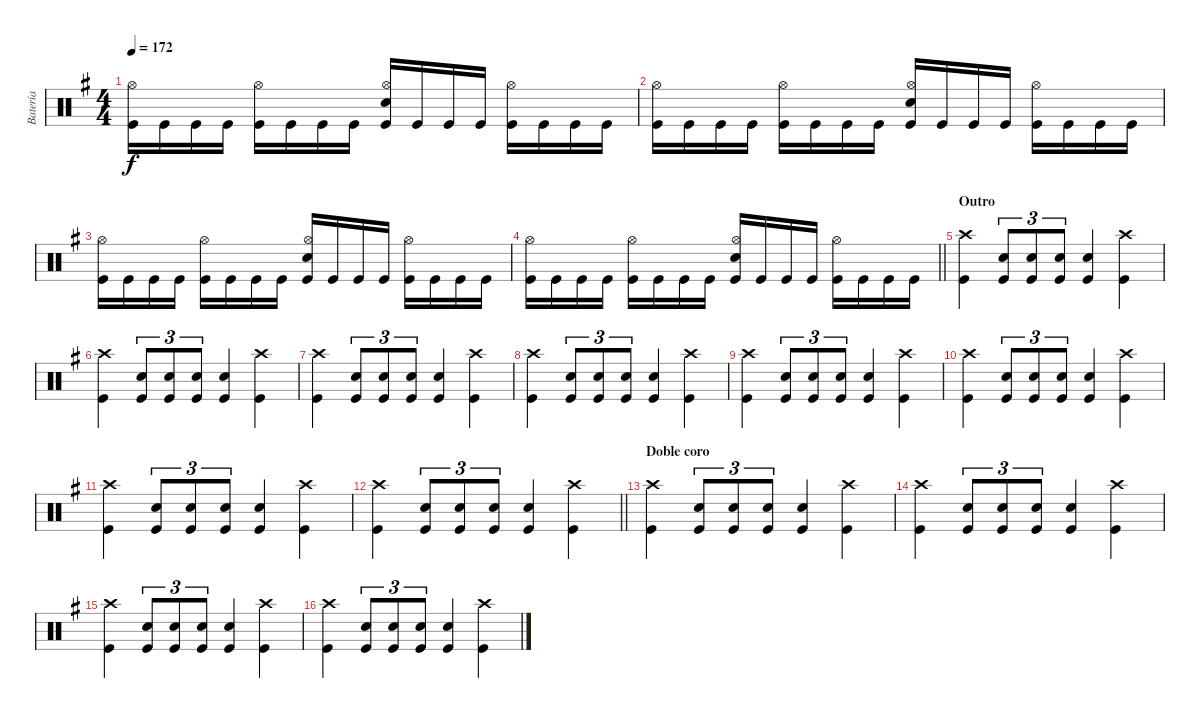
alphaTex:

\track ("Batería" "Batería") {instrument percussion}
\staff {score}
\articulation defaults
\ts (4 4)
\tempo 172
\clef neutral
\ks eminor
("Kick (hit)" "Hi-Hat (open)").16{dy f} "Kick (hit)".16 "Kick (hit)".16 "Kick (hit)".16 ("Kick (hit)" "Hi-Hat (open)").16 "Kick (hit)".16 "Kick (hit)".16 "Kick (hit)".16 ("Kick (hit)" "Hi-Hat (open)" "Electric Snare (hit)").16 "Kick (hit)".16 "Kick (hit)".16 "Kick (hit)".16 ("Kick (hit)" "Hi-Hat (open)").16 "Kick (hit)".16 "Kick (hit)".16 "Kick (hit)".16 |
("Kick (hit)" "Hi-Hat (open)").16 "Kick (hit)".16 "Kick (hit)".16 "Kick (hit)".16 ("Kick (hit)" "Hi-Hat (open)").16 "Kick (hit)".16 "Kick (hit)".16 "Kick (hit)".16 ("Kick (hit)" "Hi-Hat (open)" "Electric Snare (hit)").16 "Kick (hit)".16 "Kick (hit)".16 "Kick (hit)".16 ("Kick (hit)" "Hi-Hat (open)").16 "Kick (hit)".16 "Kick (hit)".16 "Kick (hit)".16 |
("Kick (hit)" "Hi-Hat (open)").16 "Kick (hit)".16 "Kick (hit)".16 "Kick (hit)".16 ("Kick (hit)" "Hi-Hat (open)").16 "Kick (hit)".16 "Kick (hit)".16 "Kick (hit)".16 ("Kick (hit)" "Hi-Hat (open)" "Electric Snare (hit)").16 "Kick (hit)".16 "Kick (hit)".16 "Kick (hit)".16 ("Kick (hit)" "Hi-Hat (open)").16 "Kick (hit)".16 "Kick (hit)".16 "Kick (hit)".16 |
\barLineRight lightlight
("Kick (hit)" "Hi-Hat (open)").16 "Kick (hit)".16 "Kick (hit)".16 "Kick (hit)".16 ("Kick (hit)" "Hi-Hat (open)").16 "Kick (hit)".16 "Kick (hit)".16 "Kick (hit)".16 ("Kick (hit)" "Hi-Hat (open)" "Electric Snare (hit)").16 "Kick (hit)".16 "Kick (hit)".16 "Kick (hit)".16 ("Kick (hit)" "Hi-Hat (open)").16 "Kick (hit)".16 "Kick (hit)".16 "Kick (hit)".16 |
\section ("" "Outro")
("Kick (hit)" "Crash high (hit)").4 ("Kick (hit)" "Electric Snare (hit)").8{tu (3 2)} ("Kick (hit)" "Electric Snare (hit)").8{tu (3 2)} ("Kick (hit)" "Electric Snare (hit)").8{tu (3 2)} ("Kick (hit)" "Electric Snare (hit)").4 ("Kick (hit)" "Crash high (hit)").4 |
("Kick (hit)" "Crash high (hit)").4 ("Kick (hit)" "Electric Snare (hit)").8{tu (3 2)} ("Kick (hit)" "Electric Snare (hit)").8{tu (3 2)} ("Kick (hit)" "Electric Snare (hit)").8{tu (3 2)} ("Kick (hit)" "Electric Snare (hit)").4 ("Kick (hit)" "Crash high (hit)").4 |
("Kick (hit)" "Crash high (hit)").4 ("Kick (hit)" "Electric Snare (hit)").8{tu (3 2)} ("Kick (hit)" "Electric Snare (hit)").8{tu (3 2)} ("Kick (hit)" "Electric Snare (hit)").8{tu (3 2)} ("Kick (hit)" "Electric Snare (hit)").4 ("Kick (hit)" "Crash high (hit)").4 |
("Kick (hit)" "Crash high (hit)").4 ("Kick (hit)" "Electric Snare (hit)").8{tu (3 2)} ("Kick (hit)" "Electric Snare (hit)").8{tu (3 2)} ("Kick (hit)" "Electric Snare (hit)").8{tu (3 2)} ("Kick (hit)" "Electric Snare (hit)").4 ("Kick (hit)" "Crash high (hit)").4 |
("Kick (hit)" "Crash high (hit)").4 ("Kick (hit)" "Electric Snare (hit)").8{tu (3 2)} ("Kick (hit)" "Electric Snare (hit)").8{tu (3 2)} ("Kick (hit)" "Electric Snare (hit)").8{tu (3 2)} ("Kick (hit)" "Electric Snare (hit)").4 ("Kick (hit)" "Crash high (hit)").4 |
("Kick (hit)" "Crash high (hit)").4 ("Kick (hit)" "Electric Snare (hit)").8{tu (3 2)} ("Kick (hit)" "Electric Snare (hit)").8{tu (3 2)} ("Kick (hit)" "Electric Snare (hit)").8{tu (3 2)} ("Kick (hit)" "Electric Snare (hit)").4 ("Kick (hit)" "Crash high (hit)").4 |
("Kick (hit)" "Crash high (hit)").4 ("Kick (hit)" "Electric Snare (hit)").8{tu (3 2)} ("Kick (hit)" "Electric Snare (hit)").8{tu (3 2)} ("Kick (hit)" "Electric Snare (hit)").8{tu (3 2)} ("Kick (hit)" "Electric Snare (hit)").4 ("Kick (hit)" "Crash high (hit)").4 |
\barLineRight lightlight
("Kick (hit)" "Crash high (hit)").4 ("Kick (hit)" "Electric Snare (hit)").8{tu (3 2)} ("Kick (hit)" "Electric Snare (hit)").8{tu (3 2)} ("Kick (hit)" "Electric Snare (hit)").8{tu (3 2)} ("Kick (hit)" "Electric Snare (hit)").4 ("Kick (hit)" "Crash high (hit)").4 |
\section ("" "Doble coro")
("Kick (hit)" "Crash high (hit)").4 ("Kick (hit)" "Electric Snare (hit)").8{tu (3 2)} ("Kick (hit)" "Electric Snare (hit)").8{tu (3 2)} ("Kick (hit)" "Electric Snare (hit)").8{tu (3 2)} ("Kick (hit)" "Electric Snare (hit)").4 ("Kick (hit)" "Crash high (hit)").4 |
("Kick (hit)" "Crash high (hit)").4 ("Kick (hit)" "Electric Snare (hit)").8{tu (3 2)} ("Kick (hit)" "Electric Snare (hit)").8{tu (3 2)} ("Kick (hit)" "Electric Snare (hit)").8{tu (3 2)} ("Kick (hit)" "Electric Snare (hit)").4 ("Kick (hit)" "Crash high (hit)").4 |
("Kick (hit)" "Crash high (hit)").4 ("Kick (hit)" "Electric Snare (hit)").8{tu (3 2)} ("Kick (hit)" "Electric Snare (hit)").8{tu (3 2)} ("Kick (hit)" "Electric Snare (hit)").8{tu (3 2)} ("Kick (hit)" "Electric Snare (hit)").4 ("Kick (hit)" "Crash high (hit)").4 |
("Kick (hit)" "Crash high (hit)").4 ("Kick (hit)" "Electric Snare (hit)").8{tu (3 2)} ("Kick (hit)" "Electric Snare (hit)").8{tu (3 2)} ("Kick (hit)" "Electric Snare (hit)").8{tu (3 2)} ("Kick (hit)" "Electric Snare (hit)").4 ("Kick (hit)" "Crash high (hit)").4
